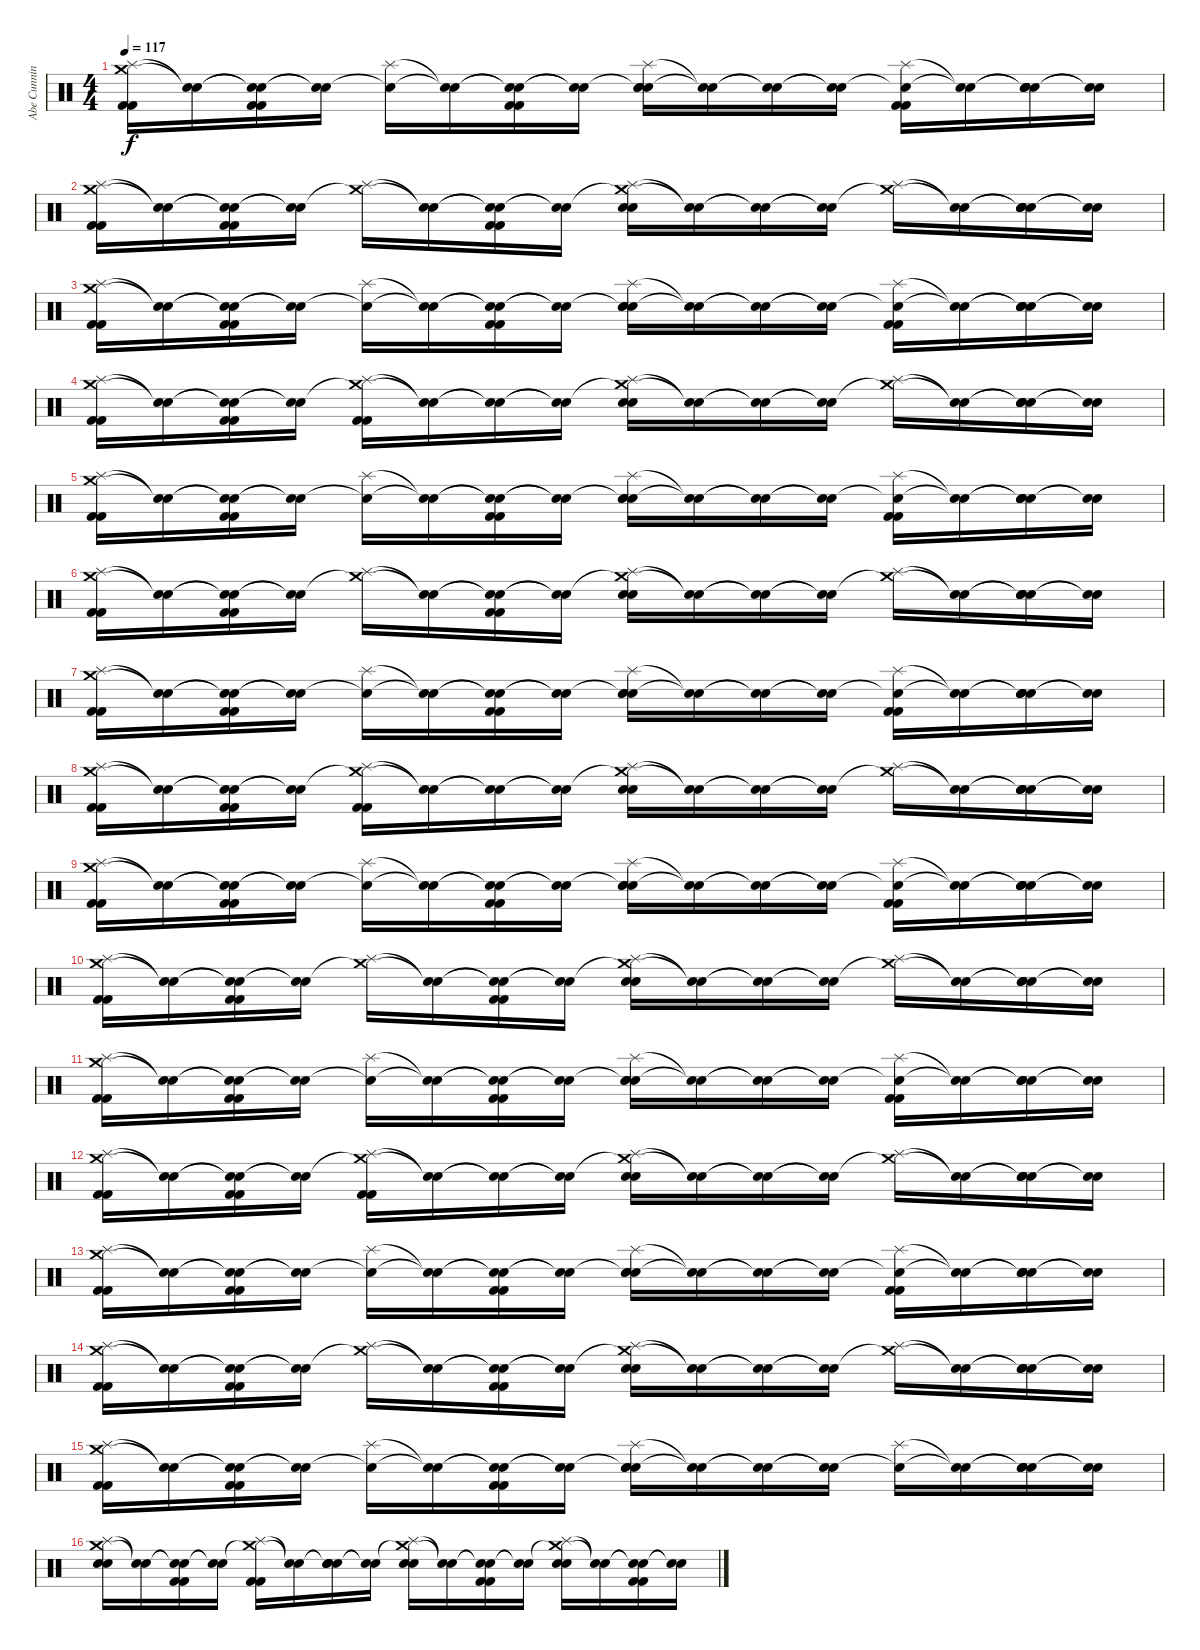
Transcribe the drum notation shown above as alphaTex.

\track ("Abe Cunningham" "Abe Cunnin") {instrument percussion}
\staff {score}
\articulation defaults
\ts (4 4)
\tempo 117
\clef neutral
\ks c
("Splash (hit)" "Crash medium (hit)" "Kick (hit) 2" "Kick (hit) 2").16{dy f} ("Snare (hit)"{t} "Snare (hit)"{t}).16 ("Snare (hit)"{t} "Snare (hit)"{t} "Kick (hit) 2" "Kick (hit) 2").16 ("Snare (hit)"{t} "Snare (hit)"{t}).16 ("Splash (hit)" "Snare (hit)"{t}).16 ("Snare (hit)"{t} "Snare (hit)"{t}).16 ("Snare (hit)"{t} "Snare (hit)"{t} "Kick (hit) 2" "Kick (hit) 2").16 ("Snare (hit)"{t} "Snare (hit)"{t}).16 ("Splash (hit)" "Snare (hit)"{t} "Electric Snare (hit)" "Electric Snare (hit)").16 ("Snare (hit)"{t} "Snare (hit)"{t}).16 ("Snare (hit)"{t} "Snare (hit)"{t}).16 ("Snare (hit)"{t} "Snare (hit)"{t}).16 ("Splash (hit)" "Snare (hit)"{t} "Kick (hit) 2" "Kick (hit) 2").16 ("Snare (hit)"{t} "Snare (hit)"{t}).16 ("Snare (hit)"{t} "Snare (hit)"{t} "Electric Snare (hit)" "Electric Snare (hit)").16 ("Snare (hit)"{t} "Snare (hit)"{t}).16 |
("Splash (hit)" "Crash medium (hit)" "Kick (hit) 2" "Kick (hit) 2").16 ("Snare (hit)"{t} "Snare (hit)"{t}).16 ("Snare (hit)"{t} "Snare (hit)"{t} "Kick (hit) 2" "Kick (hit) 2").16 ("Snare (hit)"{t} "Snare (hit)"{t}).16 ("Splash (hit)" "Crash medium (hit)"{t}).16 ("Snare (hit)"{t} "Snare (hit)"{t}).16 ("Snare (hit)"{t} "Snare (hit)"{t} "Kick (hit) 2" "Kick (hit) 2").16 ("Snare (hit)"{t} "Snare (hit)"{t}).16 ("Splash (hit)" "Crash medium (hit)"{t} "Electric Snare (hit)" "Electric Snare (hit)").16 ("Snare (hit)"{t} "Snare (hit)"{t}).16 ("Snare (hit)"{t} "Snare (hit)"{t}).16 ("Snare (hit)"{t} "Snare (hit)"{t}).16 ("Splash (hit)" "Crash medium (hit)"{t}).16 ("Snare (hit)"{t} "Snare (hit)"{t}).16 ("Snare (hit)"{t} "Snare (hit)"{t} "Electric Snare (hit)" "Electric Snare (hit)").16 ("Snare (hit)"{t} "Snare (hit)"{t}).16 |
("Splash (hit)" "Crash medium (hit)" "Kick (hit) 2" "Kick (hit) 2").16 ("Snare (hit)"{t} "Snare (hit)"{t}).16 ("Snare (hit)"{t} "Snare (hit)"{t} "Kick (hit) 2" "Kick (hit) 2").16 ("Snare (hit)"{t} "Snare (hit)"{t}).16 ("Splash (hit)" "Snare (hit)"{t}).16 ("Snare (hit)"{t} "Snare (hit)"{t}).16 ("Snare (hit)"{t} "Snare (hit)"{t} "Kick (hit) 2" "Kick (hit) 2").16 ("Snare (hit)"{t} "Snare (hit)"{t}).16 ("Splash (hit)" "Snare (hit)"{t} "Electric Snare (hit)" "Electric Snare (hit)").16 ("Snare (hit)"{t} "Snare (hit)"{t}).16 ("Snare (hit)"{t} "Snare (hit)"{t}).16 ("Snare (hit)"{t} "Snare (hit)"{t}).16 ("Splash (hit)" "Snare (hit)"{t} "Kick (hit) 2" "Kick (hit) 2").16 ("Snare (hit)"{t} "Snare (hit)"{t}).16 ("Snare (hit)"{t} "Snare (hit)"{t} "Electric Snare (hit)" "Electric Snare (hit)").16 ("Snare (hit)"{t} "Snare (hit)"{t}).16 |
("Splash (hit)" "Crash medium (hit)" "Kick (hit) 2" "Kick (hit) 2").16 ("Snare (hit)"{t} "Snare (hit)"{t}).16 ("Snare (hit)"{t} "Snare (hit)"{t} "Kick (hit) 2" "Kick (hit) 2").16 ("Snare (hit)"{t} "Snare (hit)"{t}).16 ("Splash (hit)" "Crash medium (hit)"{t} "Kick (hit) 2" "Kick (hit) 2").16 ("Snare (hit)"{t} "Snare (hit)"{t}).16 ("Snare (hit)"{t} "Snare (hit)"{t}).16 ("Snare (hit)"{t} "Snare (hit)"{t}).16 ("Splash (hit)" "Crash medium (hit)"{t} "Electric Snare (hit)" "Electric Snare (hit)").16 ("Snare (hit)"{t} "Snare (hit)"{t}).16 ("Snare (hit)"{t} "Snare (hit)"{t}).16 ("Snare (hit)"{t} "Snare (hit)"{t}).16 ("Splash (hit)" "Crash medium (hit)"{t}).16 ("Snare (hit)"{t} "Snare (hit)"{t}).16 ("Snare (hit)"{t} "Snare (hit)"{t} "Electric Snare (hit)" "Electric Snare (hit)").16 ("Snare (hit)"{t} "Snare (hit)"{t}).16 |
("Splash (hit)" "Crash medium (hit)" "Kick (hit) 2" "Kick (hit) 2").16 ("Snare (hit)"{t} "Snare (hit)"{t}).16 ("Snare (hit)"{t} "Snare (hit)"{t} "Kick (hit) 2" "Kick (hit) 2").16 ("Snare (hit)"{t} "Snare (hit)"{t}).16 ("Splash (hit)" "Snare (hit)"{t}).16 ("Snare (hit)"{t} "Snare (hit)"{t}).16 ("Snare (hit)"{t} "Snare (hit)"{t} "Kick (hit) 2" "Kick (hit) 2").16 ("Snare (hit)"{t} "Snare (hit)"{t}).16 ("Splash (hit)" "Snare (hit)"{t} "Electric Snare (hit)" "Electric Snare (hit)").16 ("Snare (hit)"{t} "Snare (hit)"{t}).16 ("Snare (hit)"{t} "Snare (hit)"{t}).16 ("Snare (hit)"{t} "Snare (hit)"{t}).16 ("Splash (hit)" "Snare (hit)"{t} "Kick (hit) 2" "Kick (hit) 2").16 ("Snare (hit)"{t} "Snare (hit)"{t}).16 ("Snare (hit)"{t} "Snare (hit)"{t} "Electric Snare (hit)" "Electric Snare (hit)").16 ("Snare (hit)"{t} "Snare (hit)"{t}).16 |
("Splash (hit)" "Crash medium (hit)" "Kick (hit) 2" "Kick (hit) 2").16 ("Snare (hit)"{t} "Snare (hit)"{t}).16 ("Snare (hit)"{t} "Snare (hit)"{t} "Kick (hit) 2" "Kick (hit) 2").16 ("Snare (hit)"{t} "Snare (hit)"{t}).16 ("Splash (hit)" "Crash medium (hit)"{t}).16 ("Snare (hit)"{t} "Snare (hit)"{t}).16 ("Snare (hit)"{t} "Snare (hit)"{t} "Kick (hit) 2" "Kick (hit) 2").16 ("Snare (hit)"{t} "Snare (hit)"{t}).16 ("Splash (hit)" "Crash medium (hit)"{t} "Electric Snare (hit)" "Electric Snare (hit)").16 ("Snare (hit)"{t} "Snare (hit)"{t}).16 ("Snare (hit)"{t} "Snare (hit)"{t}).16 ("Snare (hit)"{t} "Snare (hit)"{t}).16 ("Splash (hit)" "Crash medium (hit)"{t}).16 ("Snare (hit)"{t} "Snare (hit)"{t}).16 ("Snare (hit)"{t} "Snare (hit)"{t} "Electric Snare (hit)" "Electric Snare (hit)").16 ("Snare (hit)"{t} "Snare (hit)"{t}).16 |
("Splash (hit)" "Crash medium (hit)" "Kick (hit) 2" "Kick (hit) 2").16 ("Snare (hit)"{t} "Snare (hit)"{t}).16 ("Snare (hit)"{t} "Snare (hit)"{t} "Kick (hit) 2" "Kick (hit) 2").16 ("Snare (hit)"{t} "Snare (hit)"{t}).16 ("Splash (hit)" "Snare (hit)"{t}).16 ("Snare (hit)"{t} "Snare (hit)"{t}).16 ("Snare (hit)"{t} "Snare (hit)"{t} "Kick (hit) 2" "Kick (hit) 2").16 ("Snare (hit)"{t} "Snare (hit)"{t}).16 ("Splash (hit)" "Snare (hit)"{t} "Electric Snare (hit)" "Electric Snare (hit)").16 ("Snare (hit)"{t} "Snare (hit)"{t}).16 ("Snare (hit)"{t} "Snare (hit)"{t}).16 ("Snare (hit)"{t} "Snare (hit)"{t}).16 ("Splash (hit)" "Snare (hit)"{t} "Kick (hit) 2" "Kick (hit) 2").16 ("Snare (hit)"{t} "Snare (hit)"{t}).16 ("Snare (hit)"{t} "Snare (hit)"{t} "Electric Snare (hit)" "Electric Snare (hit)").16 ("Snare (hit)"{t} "Snare (hit)"{t}).16 |
("Splash (hit)" "Crash medium (hit)" "Kick (hit) 2" "Kick (hit) 2").16 ("Snare (hit)"{t} "Snare (hit)"{t}).16 ("Snare (hit)"{t} "Snare (hit)"{t} "Kick (hit) 2" "Kick (hit) 2").16 ("Snare (hit)"{t} "Snare (hit)"{t}).16 ("Splash (hit)" "Crash medium (hit)"{t} "Kick (hit) 2" "Kick (hit) 2").16 ("Snare (hit)"{t} "Snare (hit)"{t}).16 ("Snare (hit)"{t} "Snare (hit)"{t}).16 ("Snare (hit)"{t} "Snare (hit)"{t}).16 ("Splash (hit)" "Crash medium (hit)"{t} "Electric Snare (hit)" "Electric Snare (hit)").16 ("Snare (hit)"{t} "Snare (hit)"{t}).16 ("Snare (hit)"{t} "Snare (hit)"{t}).16 ("Snare (hit)"{t} "Snare (hit)"{t}).16 ("Splash (hit)" "Crash medium (hit)"{t}).16 ("Snare (hit)"{t} "Snare (hit)"{t}).16 ("Snare (hit)"{t} "Snare (hit)"{t} "Electric Snare (hit)" "Electric Snare (hit)").16 ("Snare (hit)"{t} "Snare (hit)"{t}).16 |
("Splash (hit)" "Crash medium (hit)" "Kick (hit) 2" "Kick (hit) 2").16 ("Snare (hit)"{t} "Snare (hit)"{t}).16 ("Snare (hit)"{t} "Snare (hit)"{t} "Kick (hit) 2" "Kick (hit) 2").16 ("Snare (hit)"{t} "Snare (hit)"{t}).16 ("Splash (hit)" "Snare (hit)"{t}).16 ("Snare (hit)"{t} "Snare (hit)"{t}).16 ("Snare (hit)"{t} "Snare (hit)"{t} "Kick (hit) 2" "Kick (hit) 2").16 ("Snare (hit)"{t} "Snare (hit)"{t}).16 ("Splash (hit)" "Snare (hit)"{t} "Electric Snare (hit)" "Electric Snare (hit)").16 ("Snare (hit)"{t} "Snare (hit)"{t}).16 ("Snare (hit)"{t} "Snare (hit)"{t}).16 ("Snare (hit)"{t} "Snare (hit)"{t}).16 ("Splash (hit)" "Snare (hit)"{t} "Kick (hit) 2" "Kick (hit) 2").16 ("Snare (hit)"{t} "Snare (hit)"{t}).16 ("Snare (hit)"{t} "Snare (hit)"{t} "Electric Snare (hit)" "Electric Snare (hit)").16 ("Snare (hit)"{t} "Snare (hit)"{t}).16 |
("Splash (hit)" "Crash medium (hit)" "Kick (hit) 2" "Kick (hit) 2").16 ("Snare (hit)"{t} "Snare (hit)"{t}).16 ("Snare (hit)"{t} "Snare (hit)"{t} "Kick (hit) 2" "Kick (hit) 2").16 ("Snare (hit)"{t} "Snare (hit)"{t}).16 ("Splash (hit)" "Crash medium (hit)"{t}).16 ("Snare (hit)"{t} "Snare (hit)"{t}).16 ("Snare (hit)"{t} "Snare (hit)"{t} "Kick (hit) 2" "Kick (hit) 2").16 ("Snare (hit)"{t} "Snare (hit)"{t}).16 ("Splash (hit)" "Crash medium (hit)"{t} "Electric Snare (hit)" "Electric Snare (hit)").16 ("Snare (hit)"{t} "Snare (hit)"{t}).16 ("Snare (hit)"{t} "Snare (hit)"{t}).16 ("Snare (hit)"{t} "Snare (hit)"{t}).16 ("Splash (hit)" "Crash medium (hit)"{t}).16 ("Snare (hit)"{t} "Snare (hit)"{t}).16 ("Snare (hit)"{t} "Snare (hit)"{t} "Electric Snare (hit)" "Electric Snare (hit)").16 ("Snare (hit)"{t} "Snare (hit)"{t}).16 |
("Splash (hit)" "Crash medium (hit)" "Kick (hit) 2" "Kick (hit) 2").16 ("Snare (hit)"{t} "Snare (hit)"{t}).16 ("Snare (hit)"{t} "Snare (hit)"{t} "Kick (hit) 2" "Kick (hit) 2").16 ("Snare (hit)"{t} "Snare (hit)"{t}).16 ("Splash (hit)" "Snare (hit)"{t}).16 ("Snare (hit)"{t} "Snare (hit)"{t}).16 ("Snare (hit)"{t} "Snare (hit)"{t} "Kick (hit) 2" "Kick (hit) 2").16 ("Snare (hit)"{t} "Snare (hit)"{t}).16 ("Splash (hit)" "Snare (hit)"{t} "Electric Snare (hit)" "Electric Snare (hit)").16 ("Snare (hit)"{t} "Snare (hit)"{t}).16 ("Snare (hit)"{t} "Snare (hit)"{t}).16 ("Snare (hit)"{t} "Snare (hit)"{t}).16 ("Splash (hit)" "Snare (hit)"{t} "Kick (hit) 2" "Kick (hit) 2").16 ("Snare (hit)"{t} "Snare (hit)"{t}).16 ("Snare (hit)"{t} "Snare (hit)"{t} "Electric Snare (hit)" "Electric Snare (hit)").16 ("Snare (hit)"{t} "Snare (hit)"{t}).16 |
("Splash (hit)" "Crash medium (hit)" "Kick (hit) 2" "Kick (hit) 2").16 ("Snare (hit)"{t} "Snare (hit)"{t}).16 ("Snare (hit)"{t} "Snare (hit)"{t} "Kick (hit) 2" "Kick (hit) 2").16 ("Snare (hit)"{t} "Snare (hit)"{t}).16 ("Splash (hit)" "Crash medium (hit)"{t} "Kick (hit) 2" "Kick (hit) 2").16 ("Snare (hit)"{t} "Snare (hit)"{t}).16 ("Snare (hit)"{t} "Snare (hit)"{t}).16 ("Snare (hit)"{t} "Snare (hit)"{t}).16 ("Splash (hit)" "Crash medium (hit)"{t} "Electric Snare (hit)" "Electric Snare (hit)").16 ("Snare (hit)"{t} "Snare (hit)"{t}).16 ("Snare (hit)"{t} "Snare (hit)"{t}).16 ("Snare (hit)"{t} "Snare (hit)"{t}).16 ("Splash (hit)" "Crash medium (hit)"{t}).16 ("Snare (hit)"{t} "Snare (hit)"{t}).16 ("Snare (hit)"{t} "Snare (hit)"{t} "Electric Snare (hit)" "Electric Snare (hit)").16 ("Snare (hit)"{t} "Snare (hit)"{t}).16 |
("Splash (hit)" "Crash medium (hit)" "Kick (hit) 2" "Kick (hit) 2").16 ("Snare (hit)"{t} "Snare (hit)"{t}).16 ("Snare (hit)"{t} "Snare (hit)"{t} "Kick (hit) 2" "Kick (hit) 2").16 ("Snare (hit)"{t} "Snare (hit)"{t}).16 ("Splash (hit)" "Snare (hit)"{t}).16 ("Snare (hit)"{t} "Snare (hit)"{t}).16 ("Snare (hit)"{t} "Snare (hit)"{t} "Kick (hit) 2" "Kick (hit) 2").16 ("Snare (hit)"{t} "Snare (hit)"{t}).16 ("Splash (hit)" "Snare (hit)"{t} "Electric Snare (hit)" "Electric Snare (hit)").16 ("Snare (hit)"{t} "Snare (hit)"{t}).16 ("Snare (hit)"{t} "Snare (hit)"{t}).16 ("Snare (hit)"{t} "Snare (hit)"{t}).16 ("Splash (hit)" "Snare (hit)"{t} "Kick (hit) 2" "Kick (hit) 2").16 ("Snare (hit)"{t} "Snare (hit)"{t}).16 ("Snare (hit)"{t} "Snare (hit)"{t} "Electric Snare (hit)" "Electric Snare (hit)").16 ("Snare (hit)"{t} "Snare (hit)"{t}).16 |
("Splash (hit)" "Crash medium (hit)" "Kick (hit) 2" "Kick (hit) 2").16 ("Snare (hit)"{t} "Snare (hit)"{t}).16 ("Snare (hit)"{t} "Snare (hit)"{t} "Kick (hit) 2" "Kick (hit) 2").16 ("Snare (hit)"{t} "Snare (hit)"{t}).16 ("Splash (hit)" "Crash medium (hit)"{t}).16 ("Snare (hit)"{t} "Snare (hit)"{t}).16 ("Snare (hit)"{t} "Snare (hit)"{t} "Kick (hit) 2" "Kick (hit) 2").16 ("Snare (hit)"{t} "Snare (hit)"{t}).16 ("Splash (hit)" "Crash medium (hit)"{t} "Electric Snare (hit)" "Electric Snare (hit)").16 ("Snare (hit)"{t} "Snare (hit)"{t}).16 ("Snare (hit)"{t} "Snare (hit)"{t}).16 ("Snare (hit)"{t} "Snare (hit)"{t}).16 ("Splash (hit)" "Crash medium (hit)"{t}).16 ("Snare (hit)"{t} "Snare (hit)"{t}).16 ("Snare (hit)"{t} "Snare (hit)"{t} "Electric Snare (hit)" "Electric Snare (hit)").16 ("Snare (hit)"{t} "Snare (hit)"{t}).16 |
("Splash (hit)" "Crash medium (hit)" "Kick (hit) 2" "Kick (hit) 2").16 ("Snare (hit)"{t} "Snare (hit)"{t}).16 ("Snare (hit)"{t} "Snare (hit)"{t} "Kick (hit) 2" "Kick (hit) 2").16 ("Snare (hit)"{t} "Snare (hit)"{t}).16 ("Splash (hit)" "Snare (hit)"{t}).16 ("Snare (hit)"{t} "Snare (hit)"{t}).16 ("Snare (hit)"{t} "Snare (hit)"{t} "Kick (hit) 2" "Kick (hit) 2").16 ("Snare (hit)"{t} "Snare (hit)"{t}).16 ("Splash (hit)" "Snare (hit)"{t} "Electric Snare (hit)" "Electric Snare (hit)").16 ("Snare (hit)"{t} "Snare (hit)"{t}).16 ("Snare (hit)"{t} "Snare (hit)"{t}).16 ("Snare (hit)"{t} "Snare (hit)"{t}).16 ("Splash (hit)" "Snare (hit)"{t}).16 ("Snare (hit)"{t} "Snare (hit)"{t}).16 ("Snare (hit)"{t} "Snare (hit)"{t} "Electric Snare (hit)" "Electric Snare (hit)").16 ("Snare (hit)"{t} "Snare (hit)"{t}).16 |
("Splash (hit)" "Crash medium (hit)" "Electric Snare (hit)" "Electric Snare (hit)").16 ("Snare (hit)"{t} "Snare (hit)"{t}).16 ("Snare (hit)"{t} "Snare (hit)"{t} "Kick (hit) 2" "Kick (hit) 2").16 ("Snare (hit)"{t} "Snare (hit)"{t}).16 ("Splash (hit)" "Crash medium (hit)"{t} "Kick (hit) 2" "Kick (hit) 2").16 ("Snare (hit)"{t} "Snare (hit)"{t}).16 ("Snare (hit)"{t} "Snare (hit)"{t} "Electric Snare (hit)" "Electric Snare (hit)").16 ("Snare (hit)"{t} "Snare (hit)"{t}).16 ("Splash (hit)" "Crash medium (hit)"{t} "Electric Snare (hit)" "Electric Snare (hit)").16 ("Snare (hit)"{t} "Snare (hit)"{t}).16 ("Snare (hit)"{t} "Snare (hit)"{t} "Kick (hit) 2" "Kick (hit) 2").16 ("Snare (hit)"{t} "Snare (hit)"{t}).16 ("Splash (hit)" "Crash medium (hit)"{t} "Electric Snare (hit)" "Electric Snare (hit)").16 ("Snare (hit)"{t} "Snare (hit)"{t}).16 ("Snare (hit)"{t} "Snare (hit)"{t} "Kick (hit) 2" "Kick (hit) 2").16 ("Snare (hit)"{t} "Snare (hit)"{t}).16
